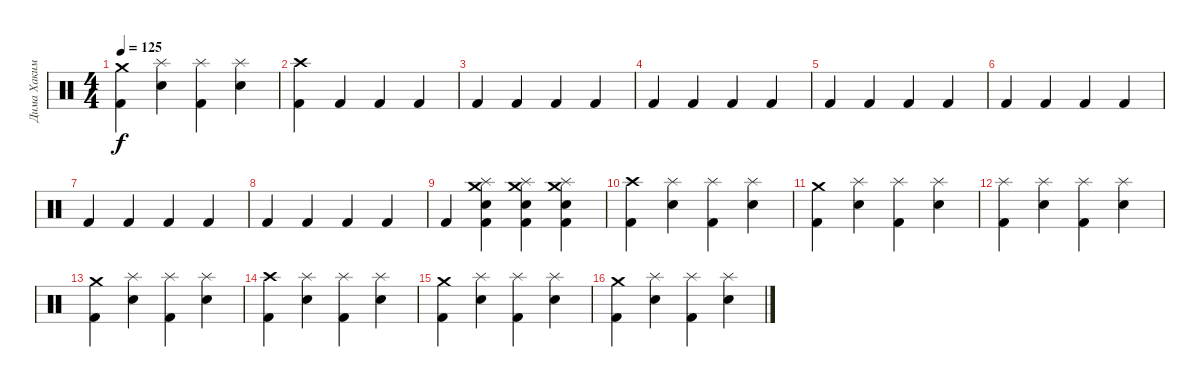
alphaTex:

\track ("Дима Хакимов" "Дима Хаким") {instrument percussion}
\staff {score}
\articulation defaults
\ts (4 4)
\tempo 125
\clef neutral
\ks c
("Crash medium (hit)" "Kick (hit) 2").4{dy f} ("Splash (hit)" "Electric Snare (hit)").4 ("Splash (hit)" "Kick (hit) 2").4 ("Splash (hit)" "Electric Snare (hit)").4 |
("Crash high (hit)" "Kick (hit) 2").4 "Kick (hit) 2".4 "Kick (hit) 2".4 "Kick (hit) 2".4 |
"Kick (hit) 2".4 "Kick (hit) 2".4 "Kick (hit) 2".4 "Kick (hit) 2".4 |
"Kick (hit) 2".4 "Kick (hit) 2".4 "Kick (hit) 2".4 "Kick (hit) 2".4 |
"Kick (hit) 2".4 "Kick (hit) 2".4 "Kick (hit) 2".4 "Kick (hit) 2".4 |
"Kick (hit) 2".4 "Kick (hit) 2".4 "Kick (hit) 2".4 "Kick (hit) 2".4 |
"Kick (hit) 2".4 "Kick (hit) 2".4 "Kick (hit) 2".4 "Kick (hit) 2".4 |
"Kick (hit) 2".4 "Kick (hit) 2".4 "Kick (hit) 2".4 "Kick (hit) 2".4 |
"Kick (hit) 2".4 ("Splash (hit)" "Electric Snare (hit)" "Crash medium (hit)" "Kick (hit) 2").4 ("Splash (hit)" "Electric Snare (hit)" "Crash medium (hit)" "Kick (hit) 2").4 ("Splash (hit)" "Electric Snare (hit)" "Crash medium (hit)" "Kick (hit) 2").4 |
("Crash high (hit)" "Kick (hit) 2").4 ("Splash (hit)" "Electric Snare (hit)").4 ("Splash (hit)" "Kick (hit) 2").4 ("Splash (hit)" "Electric Snare (hit)").4 |
("Crash medium (hit)" "Kick (hit) 2").4 ("Splash (hit)" "Electric Snare (hit)").4 ("Splash (hit)" "Kick (hit) 2").4 ("Splash (hit)" "Electric Snare (hit)").4 |
("Splash (hit)" "Kick (hit) 2").4 ("Splash (hit)" "Electric Snare (hit)").4 ("Splash (hit)" "Kick (hit) 2").4 ("Splash (hit)" "Electric Snare (hit)").4 |
("Crash medium (hit)" "Kick (hit) 2").4 ("Splash (hit)" "Electric Snare (hit)").4 ("Splash (hit)" "Kick (hit) 2").4 ("Splash (hit)" "Electric Snare (hit)").4 |
("Crash high (hit)" "Kick (hit) 2").4 ("Splash (hit)" "Electric Snare (hit)").4 ("Splash (hit)" "Kick (hit) 2").4 ("Splash (hit)" "Electric Snare (hit)").4 |
("Crash medium (hit)" "Kick (hit) 2").4 ("Splash (hit)" "Electric Snare (hit)").4 ("Splash (hit)" "Kick (hit) 2").4 ("Splash (hit)" "Electric Snare (hit)").4 |
("Crash medium (hit)" "Kick (hit) 2").4 ("Splash (hit)" "Electric Snare (hit)").4 ("Splash (hit)" "Kick (hit) 2").4 ("Splash (hit)" "Electric Snare (hit)").4
